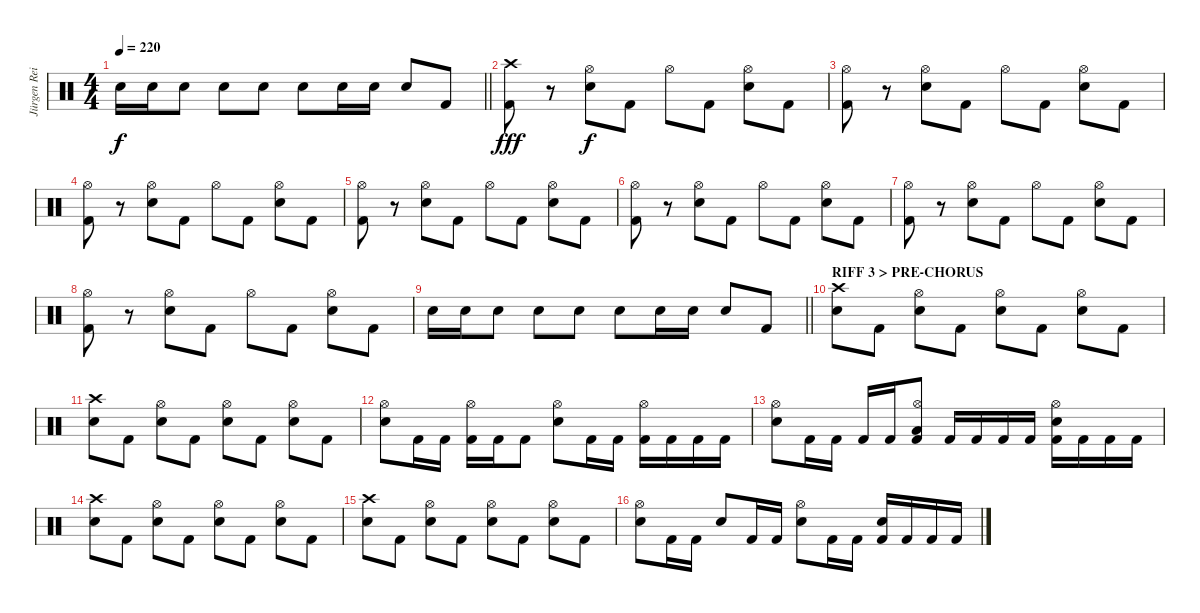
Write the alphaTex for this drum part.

\track ("Jürgen Reil" "Jürgen Rei") {instrument percussion}
\staff {score}
\articulation defaults
\ts (4 4)
\tempo 220
\clef neutral
\barLineRight lightlight
\ks c "Electric Snare (hit)".16{dy f} "Electric Snare (hit)".16 "Electric Snare (hit)".8 "Electric Snare (hit)".8 "Electric Snare (hit)".8 "Electric Snare (hit)".8 "Electric Snare (hit)".16 "Electric Snare (hit)".16 "Electric Snare (hit)".8 "Kick (hit) 2".8
|
("Crash high (hit)" "Kick (hit) 2").8{dy fff} r.8 ("Hi-Hat (open)" "Electric Snare (hit)").8{dy f} "Kick (hit) 2".8 "Hi-Hat (open)".8 "Kick (hit) 2".8 ("Hi-Hat (open)" "Electric Snare (hit)").8 "Kick (hit) 2".8 |
("Hi-Hat (open)" "Kick (hit) 2").8 r.8 ("Hi-Hat (open)" "Electric Snare (hit)").8 "Kick (hit) 2".8 "Hi-Hat (open)".8 "Kick (hit) 2".8 ("Hi-Hat (open)" "Electric Snare (hit)").8 "Kick (hit) 2".8 |
("Hi-Hat (open)" "Kick (hit) 2").8 r.8 ("Hi-Hat (open)" "Electric Snare (hit)").8 "Kick (hit) 2".8 "Hi-Hat (open)".8 "Kick (hit) 2".8 ("Hi-Hat (open)" "Electric Snare (hit)").8 "Kick (hit) 2".8 |
("Hi-Hat (open)" "Kick (hit) 2").8 r.8 ("Hi-Hat (open)" "Electric Snare (hit)").8 "Kick (hit) 2".8 "Hi-Hat (open)".8 "Kick (hit) 2".8 ("Hi-Hat (open)" "Electric Snare (hit)").8 "Kick (hit) 2".8 |
("Hi-Hat (open)" "Kick (hit) 2").8 r.8 ("Hi-Hat (open)" "Electric Snare (hit)").8 "Kick (hit) 2".8 "Hi-Hat (open)".8 "Kick (hit) 2".8 ("Hi-Hat (open)" "Electric Snare (hit)").8 "Kick (hit) 2".8 |
("Hi-Hat (open)" "Kick (hit) 2").8 r.8 ("Hi-Hat (open)" "Electric Snare (hit)").8 "Kick (hit) 2".8 "Hi-Hat (open)".8 "Kick (hit) 2".8 ("Hi-Hat (open)" "Electric Snare (hit)").8 "Kick (hit) 2".8 |
("Hi-Hat (open)" "Kick (hit) 2").8 r.8 ("Hi-Hat (open)" "Electric Snare (hit)").8 "Kick (hit) 2".8 "Hi-Hat (open)".8 "Kick (hit) 2".8 ("Hi-Hat (open)" "Electric Snare (hit)").8 "Kick (hit) 2".8 |
\barLineRight lightlight "Electric Snare (hit)".16 "Electric Snare (hit)".16 "Electric Snare (hit)".8 "Electric Snare (hit)".8 "Electric Snare (hit)".8 "Electric Snare (hit)".8 "Electric Snare (hit)".16 "Electric Snare (hit)".16 "Electric Snare (hit)".8 "Kick (hit) 2".8
|
\section ("" "RIFF 3 > PRE-CHORUS")
("Crash high (hit)" "Electric Snare (hit)").8 "Kick (hit) 2".8 ("Hi-Hat (open)" "Electric Snare (hit)").8 "Kick (hit) 2".8 ("Hi-Hat (open)" "Electric Snare (hit)").8 "Kick (hit) 2".8 ("Hi-Hat (open)" "Electric Snare (hit)").8 "Kick (hit) 2".8 |
("Crash high (hit)" "Electric Snare (hit)").8 "Kick (hit) 2".8 ("Hi-Hat (open)" "Electric Snare (hit)").8 "Kick (hit) 2".8 ("Hi-Hat (open)" "Electric Snare (hit)").8 "Kick (hit) 2".8 ("Hi-Hat (open)" "Electric Snare (hit)").8 "Kick (hit) 2".8 |
("Hi-Hat (open)" "Electric Snare (hit)").8 "Kick (hit) 2".16 "Kick (hit) 2".16 ("Hi-Hat (open)" "Kick (hit) 2").16 "Kick (hit) 2".16 "Kick (hit) 2".8 ("Hi-Hat (open)" "Electric Snare (hit)").8 "Kick (hit) 2".16 "Kick (hit) 2".16 ("Hi-Hat (open)" "Kick (hit) 2").16 "Kick (hit) 2".16 "Kick (hit) 2".16 "Kick (hit) 2".16 |
("Hi-Hat (open)" "Electric Snare (hit)").8 "Kick (hit) 2".16 "Kick (hit) 2".16 "Kick (hit) 2".16 "Kick (hit) 2".16 ("Hi-Hat (open)" "Low Tom (hit)" "Kick (hit) 2").8 "Kick (hit) 2".16 "Kick (hit) 2".16 "Kick (hit) 2".16 "Kick (hit) 2".16 ("Hi-Hat (open)" "Electric Snare (hit)" "Kick (hit) 2").16 "Kick (hit) 2".16 "Kick (hit) 2".16 "Kick (hit) 2".16 |
("Crash high (hit)" "Electric Snare (hit)").8 "Kick (hit) 2".8 ("Hi-Hat (open)" "Electric Snare (hit)").8 "Kick (hit) 2".8 ("Hi-Hat (open)" "Electric Snare (hit)").8 "Kick (hit) 2".8 ("Hi-Hat (open)" "Electric Snare (hit)").8 "Kick (hit) 2".8 |
("Crash high (hit)" "Electric Snare (hit)").8 "Kick (hit) 2".8 ("Hi-Hat (open)" "Electric Snare (hit)").8 "Kick (hit) 2".8 ("Hi-Hat (open)" "Electric Snare (hit)").8 "Kick (hit) 2".8 ("Hi-Hat (open)" "Electric Snare (hit)").8 "Kick (hit) 2".8 |
("Hi-Hat (open)" "Electric Snare (hit)").8 "Kick (hit) 2".16 "Kick (hit) 2".16 "Electric Snare (hit)".8 "Kick (hit) 2".16 "Kick (hit) 2".16 ("Hi-Hat (open)" "Electric Snare (hit)").8 "Kick (hit) 2".16 "Kick (hit) 2".16 ("Electric Snare (hit)" "Kick (hit) 2").16 "Kick (hit) 2".16 "Kick (hit) 2".16 "Kick (hit) 2".16
